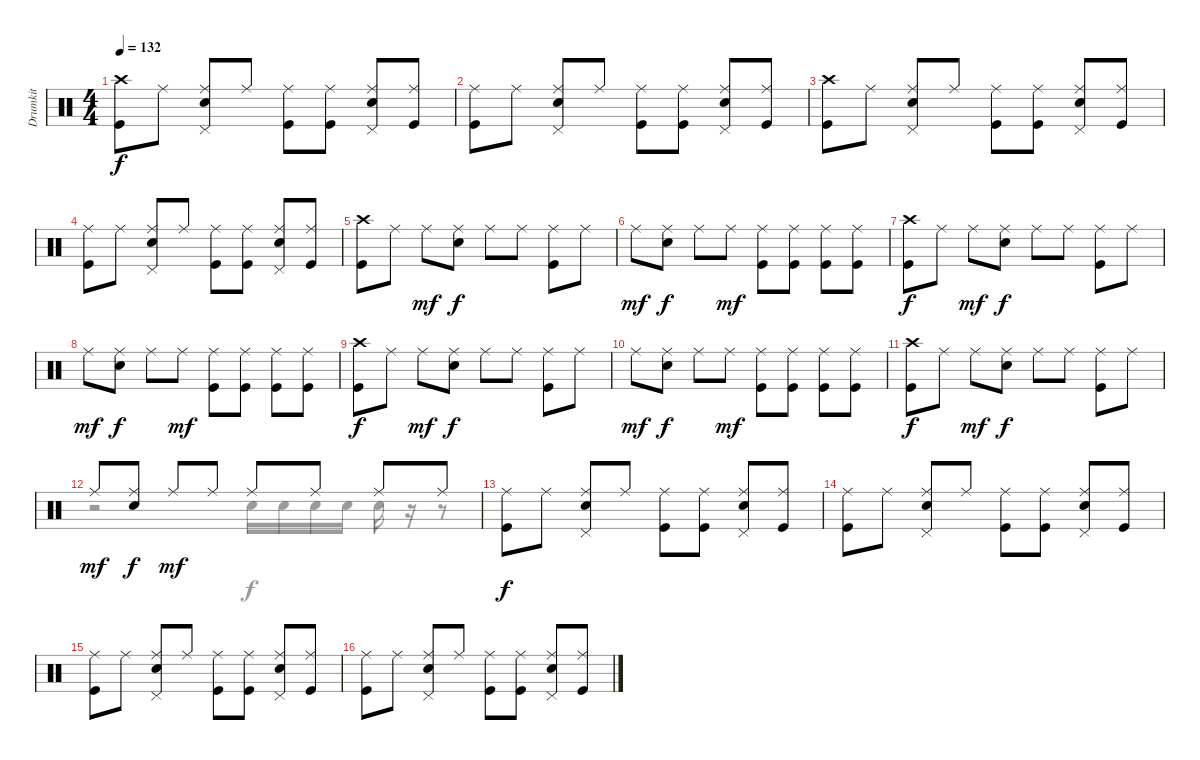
\track ("Drumkit" "Drumkit") {instrument percussion}
\staff {score}
\articulation defaults
\voice
\ts (4 4)
\tempo 132
\clef neutral
\ks c
("Kick (hit)" "Crash high (hit)").8{dy f} "Ride (middle)".8 ("Snare (hit) 2" "Pedal Hi-Hat (hit)" "Ride (middle)").8 "Ride (middle)".8 ("Kick (hit)" "Ride (middle)").8 ("Kick (hit)" "Ride (middle)").8 ("Snare (hit) 2" "Pedal Hi-Hat (hit)" "Ride (middle)").8 ("Kick (hit)" "Ride (middle)").8 |
("Kick (hit)" "Ride (middle)").8 "Ride (middle)".8 ("Snare (hit) 2" "Pedal Hi-Hat (hit)" "Ride (middle)").8 "Ride (middle)".8 ("Kick (hit)" "Ride (middle)").8 ("Kick (hit)" "Ride (middle)").8 ("Snare (hit) 2" "Pedal Hi-Hat (hit)" "Ride (middle)").8 ("Kick (hit)" "Ride (middle)").8 |
("Kick (hit)" "Crash high (hit)").8 "Ride (middle)".8 ("Snare (hit) 2" "Pedal Hi-Hat (hit)" "Ride (middle)").8 "Ride (middle)".8 ("Kick (hit)" "Ride (middle)").8 ("Kick (hit)" "Ride (middle)").8 ("Snare (hit) 2" "Pedal Hi-Hat (hit)" "Ride (middle)").8 ("Kick (hit)" "Ride (middle)").8 |
("Kick (hit)" "Ride (middle)").8 "Ride (middle)".8 ("Snare (hit) 2" "Pedal Hi-Hat (hit)" "Ride (middle)").8 "Ride (middle)".8 ("Kick (hit)" "Ride (middle)").8 ("Kick (hit)" "Ride (middle)").8 ("Snare (hit) 2" "Pedal Hi-Hat (hit)" "Ride (middle)").8 ("Kick (hit)" "Ride (middle)").8 |
("Crash high (hit)" "Kick (hit)").8 "Ride (middle)".8 "Ride (middle)".8{dy mf} ("Ride (middle)" "Snare (hit) 2").8{dy f} "Ride (middle)".8 "Ride (middle)".8 ("Kick (hit)" "Ride (middle)").8 "Ride (middle)".8 |
"Ride (middle)".8{dy mf} ("Ride (middle)" "Snare (hit) 2").8{dy f} "Ride (middle)".8 "Ride (middle)".8{dy mf} ("Ride (middle)" "Kick (hit)").8 ("Ride (middle)" "Kick (hit)").8 ("Ride (middle)" "Kick (hit)").8 ("Ride (middle)" "Kick (hit)").8 |
("Crash high (hit)" "Kick (hit)").8{dy f} "Ride (middle)".8 "Ride (middle)".8{dy mf} ("Ride (middle)" "Snare (hit) 2").8{dy f} "Ride (middle)".8 "Ride (middle)".8 ("Kick (hit)" "Ride (middle)").8 "Ride (middle)".8 |
"Ride (middle)".8{dy mf} ("Ride (middle)" "Snare (hit) 2").8{dy f} "Ride (middle)".8 "Ride (middle)".8{dy mf} ("Ride (middle)" "Kick (hit)").8 ("Ride (middle)" "Kick (hit)").8 ("Ride (middle)" "Kick (hit)").8 ("Ride (middle)" "Kick (hit)").8 |
("Crash high (hit)" "Kick (hit)").8{dy f} "Ride (middle)".8 "Ride (middle)".8{dy mf} ("Ride (middle)" "Snare (hit) 2").8{dy f} "Ride (middle)".8 "Ride (middle)".8 ("Kick (hit)" "Ride (middle)").8 "Ride (middle)".8 |
"Ride (middle)".8{dy mf} ("Ride (middle)" "Snare (hit) 2").8{dy f} "Ride (middle)".8 "Ride (middle)".8{dy mf} ("Ride (middle)" "Kick (hit)").8 ("Ride (middle)" "Kick (hit)").8 ("Ride (middle)" "Kick (hit)").8 ("Ride (middle)" "Kick (hit)").8 |
("Crash high (hit)" "Kick (hit)").8{dy f} "Ride (middle)".8 "Ride (middle)".8{dy mf} ("Ride (middle)" "Snare (hit) 2").8{dy f} "Ride (middle)".8 "Ride (middle)".8 ("Kick (hit)" "Ride (middle)").8 "Ride (middle)".8 |
"Ride (middle)".8{dy mf} ("Ride (middle)" "Snare (hit) 2").8{dy f} "Ride (middle)".8{dy mf} "Ride (middle)".8 "Ride (middle)".8 "Ride (middle)".8 "Ride (middle)".8 "Ride (middle)".8 |
("Kick (hit)" "Ride (middle)").8{dy f} "Ride (middle)".8 ("Snare (hit) 2" "Pedal Hi-Hat (hit)" "Ride (middle)").8 "Ride (middle)".8 ("Kick (hit)" "Ride (middle)").8 ("Kick (hit)" "Ride (middle)").8 ("Snare (hit) 2" "Pedal Hi-Hat (hit)" "Ride (middle)").8 ("Kick (hit)" "Ride (middle)").8 |
("Kick (hit)" "Ride (middle)").8 "Ride (middle)".8 ("Snare (hit) 2" "Pedal Hi-Hat (hit)" "Ride (middle)").8 "Ride (middle)".8 ("Kick (hit)" "Ride (middle)").8 ("Kick (hit)" "Ride (middle)").8 ("Snare (hit) 2" "Pedal Hi-Hat (hit)" "Ride (middle)").8 ("Kick (hit)" "Ride (middle)").8 |
("Kick (hit)" "Ride (middle)").8 "Ride (middle)".8 ("Snare (hit) 2" "Pedal Hi-Hat (hit)" "Ride (middle)").8 "Ride (middle)".8 ("Kick (hit)" "Ride (middle)").8 ("Kick (hit)" "Ride (middle)").8 ("Snare (hit) 2" "Pedal Hi-Hat (hit)" "Ride (middle)").8 ("Kick (hit)" "Ride (middle)").8 |
("Kick (hit)" "Ride (middle)").8 "Ride (middle)".8 ("Snare (hit) 2" "Pedal Hi-Hat (hit)" "Ride (middle)").8 "Ride (middle)".8 ("Kick (hit)" "Ride (middle)").8 ("Kick (hit)" "Ride (middle)").8 ("Snare (hit) 2" "Pedal Hi-Hat (hit)" "Ride (middle)").8 ("Kick (hit)" "Ride (middle)").8
\voice
\clef neutral
\ottava regular
\simile none
\ks c
|
|
|
|
|
|
|
|
|
|
|
r.2 "Snare (hit) 2".16 "Snare (hit) 2".16 "Snare (hit) 2".16 "Snare (hit) 2".16 "Snare (hit) 2".16 r.16 r.8 |
|
|
|
